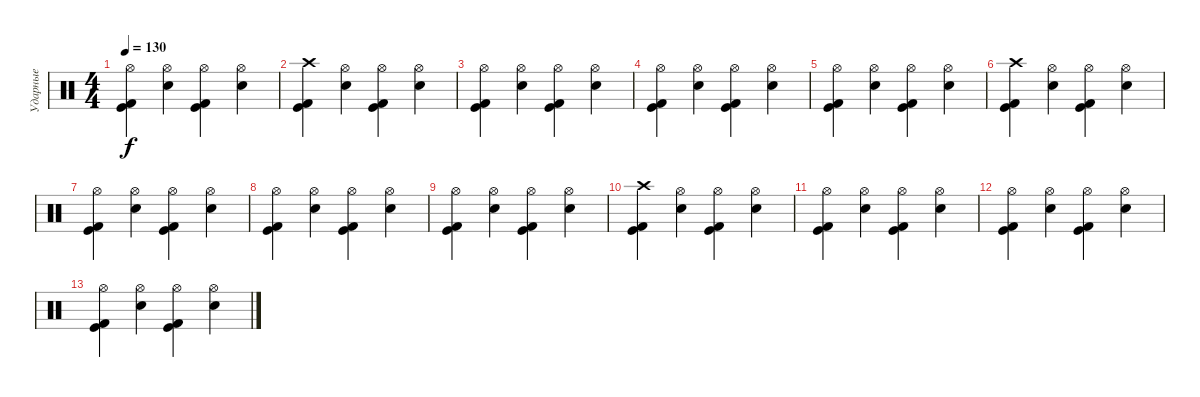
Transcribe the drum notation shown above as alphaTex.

\track ("Ударные" "Ударные") {instrument percussion}
\staff {score}
\articulation defaults
\ts (4 4)
\tempo 130
\clef neutral
\ks c
("Hi-Hat (open)" "Kick (hit) 2" "Kick (hit)").4{dy f} ("Hi-Hat (open)" "Electric Snare (hit)").4 ("Hi-Hat (open)" "Kick (hit) 2" "Kick (hit)").4 ("Hi-Hat (open)" "Electric Snare (hit)").4 |
("Crash high (hit)" "Kick (hit) 2" "Kick (hit)").4 ("Hi-Hat (open)" "Electric Snare (hit)").4 ("Hi-Hat (open)" "Kick (hit) 2" "Kick (hit)").4 ("Hi-Hat (open)" "Electric Snare (hit)").4 |
("Hi-Hat (open)" "Kick (hit) 2" "Kick (hit)").4 ("Hi-Hat (open)" "Electric Snare (hit)").4 ("Hi-Hat (open)" "Kick (hit) 2" "Kick (hit)").4 ("Hi-Hat (open)" "Electric Snare (hit)").4 |
("Hi-Hat (open)" "Kick (hit) 2" "Kick (hit)").4 ("Hi-Hat (open)" "Electric Snare (hit)").4 ("Hi-Hat (open)" "Kick (hit) 2" "Kick (hit)").4 ("Hi-Hat (open)" "Electric Snare (hit)").4 |
("Hi-Hat (open)" "Kick (hit) 2" "Kick (hit)").4 ("Hi-Hat (open)" "Electric Snare (hit)").4 ("Hi-Hat (open)" "Kick (hit) 2" "Kick (hit)").4 ("Hi-Hat (open)" "Electric Snare (hit)").4 |
("Crash high (hit)" "Kick (hit) 2" "Kick (hit)").4 ("Hi-Hat (open)" "Electric Snare (hit)").4 ("Hi-Hat (open)" "Kick (hit) 2" "Kick (hit)").4 ("Hi-Hat (open)" "Electric Snare (hit)").4 |
("Hi-Hat (open)" "Kick (hit) 2" "Kick (hit)").4 ("Hi-Hat (open)" "Electric Snare (hit)").4 ("Hi-Hat (open)" "Kick (hit) 2" "Kick (hit)").4 ("Hi-Hat (open)" "Electric Snare (hit)").4 |
("Hi-Hat (open)" "Kick (hit) 2" "Kick (hit)").4 ("Hi-Hat (open)" "Electric Snare (hit)").4 ("Hi-Hat (open)" "Kick (hit) 2" "Kick (hit)").4 ("Hi-Hat (open)" "Electric Snare (hit)").4 |
("Hi-Hat (open)" "Kick (hit) 2" "Kick (hit)").4 ("Hi-Hat (open)" "Electric Snare (hit)").4 ("Hi-Hat (open)" "Kick (hit) 2" "Kick (hit)").4 ("Hi-Hat (open)" "Electric Snare (hit)").4 |
("Crash high (hit)" "Kick (hit) 2" "Kick (hit)").4 ("Hi-Hat (open)" "Electric Snare (hit)").4 ("Hi-Hat (open)" "Kick (hit) 2" "Kick (hit)").4 ("Hi-Hat (open)" "Electric Snare (hit)").4 |
("Hi-Hat (open)" "Kick (hit) 2" "Kick (hit)").4 ("Hi-Hat (open)" "Electric Snare (hit)").4 ("Hi-Hat (open)" "Kick (hit) 2" "Kick (hit)").4 ("Hi-Hat (open)" "Electric Snare (hit)").4 |
("Hi-Hat (open)" "Kick (hit) 2" "Kick (hit)").4 ("Hi-Hat (open)" "Electric Snare (hit)").4 ("Hi-Hat (open)" "Kick (hit) 2" "Kick (hit)").4 ("Hi-Hat (open)" "Electric Snare (hit)").4 |
("Hi-Hat (open)" "Kick (hit) 2" "Kick (hit)").4 ("Hi-Hat (open)" "Electric Snare (hit)").4 ("Hi-Hat (open)" "Kick (hit) 2" "Kick (hit)").4 ("Hi-Hat (open)" "Electric Snare (hit)").4
